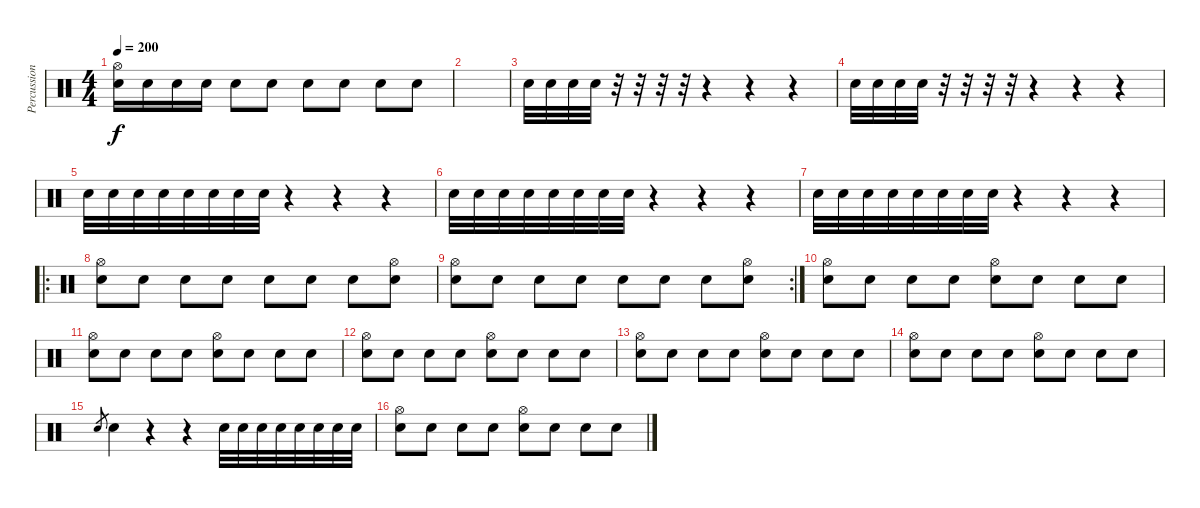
\track ("Percussion" "Percussion") {instrument percussion}
\staff {score}
\articulation defaults
\ts (4 4)
\tempo 200
\clef neutral
\ks c
("Hi-Hat (open)" "Snare (hit) 2").16{dy f} "Snare (hit) 2".16 "Snare (hit) 2".16 "Snare (hit) 2".16 "Snare (hit) 2".8 "Snare (hit) 2".8 "Snare (hit) 2".8 "Snare (hit) 2".8 "Snare (hit) 2".8 "Snare (hit) 2".8 |
|
"Snare (hit) 2".32 "Snare (hit) 2".32 "Snare (hit) 2".32 "Snare (hit) 2".32 r.32 r.32 r.32 r.32 r.4 r.4 r.4 |
"Snare (hit) 2".32 "Snare (hit) 2".32 "Snare (hit) 2".32 "Snare (hit) 2".32 r.32 r.32 r.32 r.32 r.4 r.4 r.4 |
"Snare (hit) 2".32 "Snare (hit) 2".32 "Snare (hit) 2".32 "Snare (hit) 2".32 "Snare (hit) 2".32 "Snare (hit) 2".32 "Snare (hit) 2".32 "Snare (hit) 2".32 r.4 r.4 r.4 |
"Snare (hit) 2".32 "Snare (hit) 2".32 "Snare (hit) 2".32 "Snare (hit) 2".32 "Snare (hit) 2".32 "Snare (hit) 2".32 "Snare (hit) 2".32 "Snare (hit) 2".32 r.4 r.4 r.4 |
"Snare (hit) 2".32 "Snare (hit) 2".32 "Snare (hit) 2".32 "Snare (hit) 2".32 "Snare (hit) 2".32 "Snare (hit) 2".32 "Snare (hit) 2".32 "Snare (hit) 2".32 r.4 r.4 r.4 |
\ro
("Hi-Hat (open)" "Snare (hit) 2").8 "Snare (hit) 2".8 "Snare (hit) 2".8 "Snare (hit) 2".8 "Snare (hit) 2".8 "Snare (hit) 2".8 "Snare (hit) 2".8 ("Hi-Hat (open)" "Snare (hit) 2").8 |
\rc 2
("Hi-Hat (open)" "Snare (hit) 2").8 "Snare (hit) 2".8 "Snare (hit) 2".8 "Snare (hit) 2".8 "Snare (hit) 2".8 "Snare (hit) 2".8 "Snare (hit) 2".8 ("Hi-Hat (open)" "Snare (hit) 2").8 |
("Hi-Hat (open)" "Snare (hit) 2").8 "Snare (hit) 2".8 "Snare (hit) 2".8 "Electric Snare (hit)".8 ("Hi-Hat (open)" "Snare (hit) 2").8 "Snare (hit) 2".8 "Snare (hit) 2".8 "Electric Snare (hit)".8 |
("Hi-Hat (open)" "Snare (hit) 2").8 "Snare (hit) 2".8 "Snare (hit) 2".8 "Electric Snare (hit)".8 ("Hi-Hat (open)" "Snare (hit) 2").8 "Snare (hit) 2".8 "Snare (hit) 2".8 "Electric Snare (hit)".8 |
("Hi-Hat (open)" "Snare (hit) 2").8 "Snare (hit) 2".8 "Snare (hit) 2".8 "Electric Snare (hit)".8 ("Hi-Hat (open)" "Snare (hit) 2").8 "Snare (hit) 2".8 "Snare (hit) 2".8 "Electric Snare (hit)".8 |
("Hi-Hat (open)" "Snare (hit) 2").8 "Snare (hit) 2".8 "Snare (hit) 2".8 "Electric Snare (hit)".8 ("Hi-Hat (open)" "Snare (hit) 2").8 "Snare (hit) 2".8 "Snare (hit) 2".8 "Electric Snare (hit)".8 |
("Hi-Hat (open)" "Snare (hit) 2").8 "Snare (hit) 2".8 "Snare (hit) 2".8 "Electric Snare (hit)".8 ("Hi-Hat (open)" "Snare (hit) 2").8 "Snare (hit) 2".8 "Snare (hit) 2".8 "Electric Snare (hit)".8 |
"Snare (hit) 2".8{gr} "Snare (hit) 2".4 r.4 r.4 "Snare (hit) 2".32 "Snare (hit) 2".32 "Snare (hit) 2".32 "Snare (hit) 2".32 "Snare (hit) 2".32 "Snare (hit) 2".32 "Snare (hit) 2".32 "Snare (hit) 2".32 |
("Hi-Hat (open)" "Snare (hit) 2").8 "Snare (hit) 2".8 "Snare (hit) 2".8 "Electric Snare (hit)".8 ("Hi-Hat (open)" "Snare (hit) 2").8 "Snare (hit) 2".8 "Snare (hit) 2".8 "Electric Snare (hit)".8
